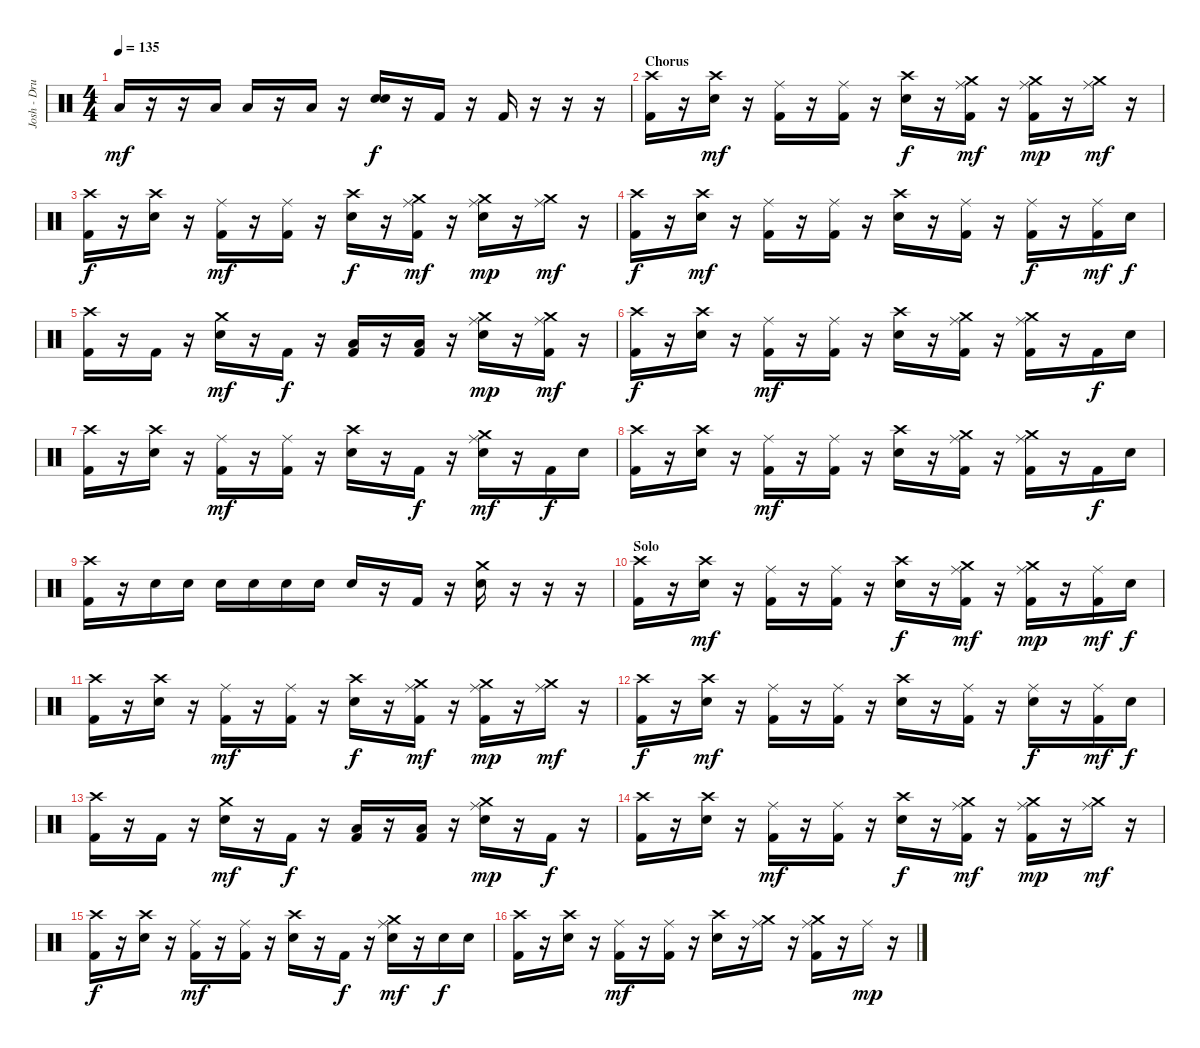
\track ("Josh - Drums" "Josh - Dru") {instrument percussion}
\staff {score}
\articulation defaults
\ts (4 4)
\tempo 135
\clef neutral
\ks c "Low Floor Tom (hit)".16{dy mf}
r.16 r.16 "Low Floor Tom (hit)".16 "Low Floor Tom (hit)".16 r.16 "Low Floor Tom (hit)".16 r.16 ("Electric Snare (hit)" "Electric Snare (hit)").16{bd 240 dy f} r.16 "Kick (hit) 2".16 r.16 "Kick (hit) 2".16 r.16 r.16 r.16 |
\section ("" "Chorus")
("Crash high (hit)" "Kick (hit) 2").16 r.16 ("Crash high (hit)" "Electric Snare (hit)").16{dy mf} r.16 ("Ride (middle)" "Kick (hit) 2").16 r.16 ("Ride (middle)" "Kick (hit) 2").16 r.16 ("Crash high (hit)" "Electric Snare (hit)").16{dy f} r.16 ("Crash medium (hit)" "Ride (middle)" "Kick (hit) 2").16{dy mf} r.16 ("Crash medium (hit)" "Ride (middle)" "Kick (hit) 2").16{dy mp} r.16 ("Crash medium (hit)" "Ride (middle)").16{dy mf} r.16 |
("Crash high (hit)" "Kick (hit) 2").16{dy f} r.16 ("Crash high (hit)" "Electric Snare (hit)").16 r.16 ("Ride (middle)" "Kick (hit) 2").16{dy mf} r.16 ("Ride (middle)" "Kick (hit) 2").16 r.16 ("Crash high (hit)" "Electric Snare (hit)").16{dy f} r.16 ("Crash medium (hit)" "Ride (middle)" "Kick (hit) 2").16{dy mf} r.16 ("Crash medium (hit)" "Ride (middle)" "Electric Snare (hit)").16{dy mp} r.16 ("Crash medium (hit)" "Ride (middle)").16{dy mf} r.16 |
("Crash high (hit)" "Kick (hit) 2").16{dy f} r.16 ("Crash high (hit)" "Electric Snare (hit)").16{dy mf} r.16 ("Ride (middle)" "Kick (hit) 2").16 r.16 ("Ride (middle)" "Kick (hit) 2").16 r.16 ("Crash high (hit)" "Electric Snare (hit)").16 r.16 ("Ride (middle)" "Kick (hit) 2").16 r.16 ("Ride (middle)" "Kick (hit) 2").16{dy f} r.16 ("Ride (middle)" "Kick (hit) 2").16{dy mf} "Electric Snare (hit)".16{dy f} |
("Crash high (hit)" "Kick (hit) 2").16 r.16 "Kick (hit) 2".16 r.16 ("Crash medium (hit)" "Electric Snare (hit)").16{dy mf} r.16 "Kick (hit) 2".16{dy f} r.16 ("Low Floor Tom (hit)" "Kick (hit) 2").16 r.16 ("Low Floor Tom (hit)" "Kick (hit) 2").16 r.16 ("Crash medium (hit)" "Ride (middle)" "Electric Snare (hit)").16{dy mp} r.16 ("Crash medium (hit)" "Ride (middle)" "Kick (hit) 2").16{dy mf} r.16 |
("Crash high (hit)" "Kick (hit) 2").16{dy f} r.16 ("Crash high (hit)" "Electric Snare (hit)").16 r.16 ("Ride (middle)" "Kick (hit) 2").16{dy mf} r.16 ("Ride (middle)" "Kick (hit) 2").16 r.16 ("Crash high (hit)" "Electric Snare (hit)").16 r.16 ("Crash medium (hit)" "Ride (middle)" "Kick (hit) 2").16 r.16 ("Crash medium (hit)" "Ride (middle)" "Kick (hit) 2").16 r.16 "Kick (hit) 2".16{dy f} "Electric Snare (hit)".16 |
("Crash high (hit)" "Kick (hit) 2").16 r.16 ("Crash high (hit)" "Electric Snare (hit)").16 r.16 ("Ride (middle)" "Kick (hit) 2").16{dy mf} r.16 ("Ride (middle)" "Kick (hit) 2").16 r.16 ("Crash high (hit)" "Electric Snare (hit)").16 r.16 "Kick (hit) 2".16{dy f} r.16 ("Crash medium (hit)" "Ride (middle)" "Electric Snare (hit)").16{dy mf} r.16 "Kick (hit) 2".16{dy f} "Electric Snare (hit)".16 |
("Crash high (hit)" "Kick (hit) 2").16 r.16 ("Crash high (hit)" "Electric Snare (hit)").16 r.16 ("Ride (middle)" "Kick (hit) 2").16{dy mf} r.16 ("Ride (middle)" "Kick (hit) 2").16 r.16 ("Crash high (hit)" "Electric Snare (hit)").16 r.16 ("Crash medium (hit)" "Ride (middle)" "Kick (hit) 2").16 r.16 ("Crash medium (hit)" "Ride (middle)" "Kick (hit) 2").16 r.16 "Kick (hit) 2".16{dy f} "Electric Snare (hit)".16 |
("Crash high (hit)" "Kick (hit) 2").16 r.16 "Electric Snare (hit)".16 "Electric Snare (hit)".16 "Electric Snare (hit)".16 "Electric Snare (hit)".16 "Electric Snare (hit)".16 "Electric Snare (hit)".16 "Electric Snare (hit)".16 r.16 "Kick (hit) 2".16 r.16 ("Crash medium (hit)" "Electric Snare (hit)").16 r.16 r.16 r.16 |
\section ("" "Solo")
("Crash high (hit)" "Kick (hit) 2").16 r.16 ("Crash high (hit)" "Electric Snare (hit)").16{dy mf} r.16 ("Ride (middle)" "Kick (hit) 2").16 r.16 ("Ride (middle)" "Kick (hit) 2").16 r.16 ("Crash high (hit)" "Electric Snare (hit)").16{dy f} r.16 ("Crash medium (hit)" "Ride (middle)" "Kick (hit) 2").16{dy mf} r.16 ("Crash medium (hit)" "Ride (middle)" "Kick (hit) 2").16{dy mp} r.16 ("Ride (middle)" "Kick (hit) 2").16{dy mf} "Electric Snare (hit)".16{dy f} |
("Crash high (hit)" "Kick (hit) 2").16 r.16 ("Crash high (hit)" "Electric Snare (hit)").16 r.16 ("Ride (middle)" "Kick (hit) 2").16{dy mf} r.16 ("Ride (middle)" "Kick (hit) 2").16 r.16 ("Crash high (hit)" "Electric Snare (hit)").16{dy f} r.16 ("Crash medium (hit)" "Ride (middle)" "Kick (hit) 2").16{dy mf} r.16 ("Crash medium (hit)" "Ride (middle)" "Kick (hit) 2").16{dy mp} r.16 ("Crash medium (hit)" "Ride (middle)").16{dy mf} r.16 |
("Crash high (hit)" "Kick (hit) 2").16{dy f} r.16 ("Crash high (hit)" "Electric Snare (hit)").16{dy mf} r.16 ("Ride (middle)" "Kick (hit) 2").16 r.16 ("Ride (middle)" "Kick (hit) 2").16 r.16 ("Crash high (hit)" "Electric Snare (hit)").16 r.16 ("Ride (middle)" "Kick (hit) 2").16 r.16 ("Ride (middle)" "Electric Snare (hit)").16{dy f} r.16 ("Ride (middle)" "Kick (hit) 2").16{dy mf} "Electric Snare (hit)".16{dy f} |
("Crash high (hit)" "Kick (hit) 2").16 r.16 "Kick (hit) 2".16 r.16 ("Crash medium (hit)" "Electric Snare (hit)").16{dy mf} r.16 "Kick (hit) 2".16{dy f} r.16 ("Low Floor Tom (hit)" "Kick (hit) 2").16 r.16 ("Low Floor Tom (hit)" "Kick (hit) 2").16 r.16 ("Crash medium (hit)" "Ride (middle)" "Electric Snare (hit)").16{dy mp} r.16 "Kick (hit) 2".16{dy f} r.16 |
("Crash high (hit)" "Kick (hit) 2").16 r.16 ("Crash high (hit)" "Electric Snare (hit)").16 r.16 ("Ride (middle)" "Kick (hit) 2").16{dy mf} r.16 ("Ride (middle)" "Kick (hit) 2").16 r.16 ("Crash high (hit)" "Electric Snare (hit)").16{dy f} r.16 ("Crash medium (hit)" "Ride (middle)" "Kick (hit) 2").16{dy mf} r.16 ("Crash medium (hit)" "Ride (middle)" "Kick (hit) 2").16{dy mp} r.16 ("Crash medium (hit)" "Ride (middle)").16{dy mf} r.16 |
("Crash high (hit)" "Kick (hit) 2").16{dy f} r.16 ("Crash high (hit)" "Electric Snare (hit)").16 r.16 ("Ride (middle)" "Kick (hit) 2").16{dy mf} r.16 ("Ride (middle)" "Kick (hit) 2").16 r.16 ("Crash high (hit)" "Electric Snare (hit)").16 r.16 "Kick (hit) 2".16{dy f} r.16 ("Crash medium (hit)" "Ride (middle)" "Electric Snare (hit)").16{dy mf} r.16 "Electric Snare (hit)".16{dy f} "Electric Snare (hit)".16 |
("Crash high (hit)" "Kick (hit) 2").16 r.16 ("Crash high (hit)" "Electric Snare (hit)").16 r.16 ("Ride (middle)" "Kick (hit) 2").16{dy mf} r.16 ("Ride (middle)" "Kick (hit) 2").16 r.16 ("Crash high (hit)" "Electric Snare (hit)").16 r.16 ("Crash medium (hit)" "Ride (middle)").16 r.16 ("Crash medium (hit)" "Ride (middle)" "Kick (hit) 2").16 r.16 "Ride (middle)".16{dy mp} r.16
